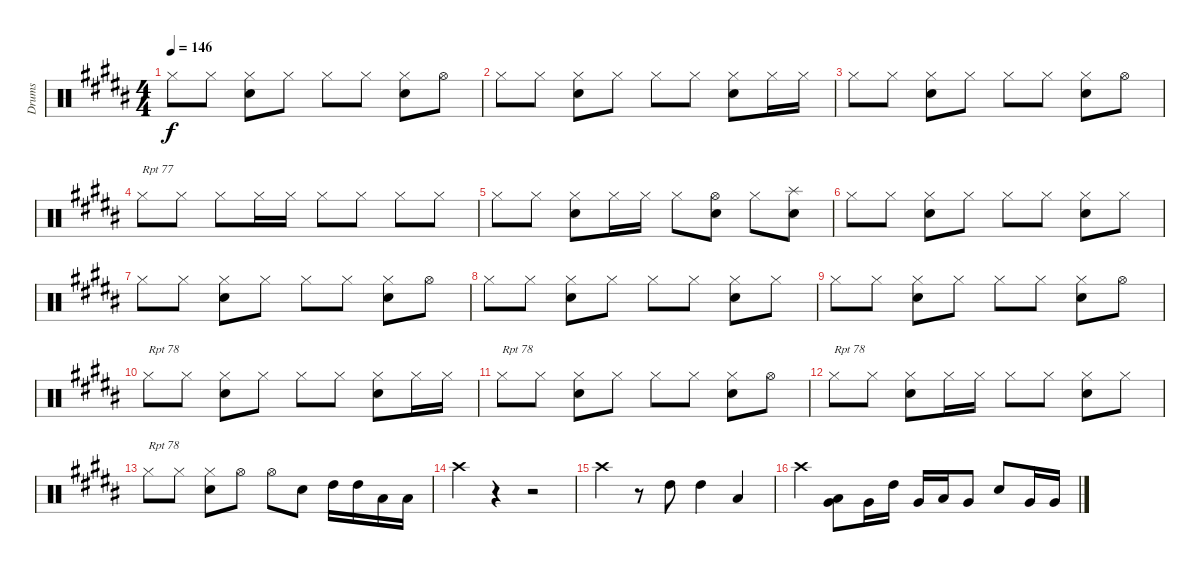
\track ("Drums" "Drums") {instrument percussion}
\staff {score}
\articulation defaults
\ts (4 4)
\tempo 146
\clef neutral
\ks b "Hi-Hat (closed)".8{dy f} "Hi-Hat (closed)".8
("Hi-Hat (closed)" "Snare (hit) 2").8 "Hi-Hat (closed)".8 "Hi-Hat (closed)".8 "Hi-Hat (closed)".8 ("Hi-Hat (closed)" "Snare (hit) 2").8 "Hi-Hat (open)".8 |
"Hi-Hat (closed)".8 "Hi-Hat (closed)".8 ("Hi-Hat (closed)" "Snare (hit) 2").8 "Hi-Hat (closed)".8 "Hi-Hat (closed)".8 "Hi-Hat (closed)".8 ("Hi-Hat (closed)" "Snare (hit) 2").8 "Hi-Hat (closed)".16 "Hi-Hat (closed)".16 |
"Hi-Hat (closed)".8 "Hi-Hat (closed)".8 ("Hi-Hat (closed)" "Snare (hit) 2").8 "Hi-Hat (closed)".8 "Hi-Hat (closed)".8 "Hi-Hat (closed)".8 ("Hi-Hat (closed)" "Snare (hit) 2").8 "Hi-Hat (open)".8 |
"Hi-Hat (closed)".8{txt "Rpt 77"} "Hi-Hat (closed)".8 "Hi-Hat (closed)".8 "Hi-Hat (closed)".16 "Hi-Hat (closed)".16 "Hi-Hat (closed)".8 "Hi-Hat (closed)".8 "Hi-Hat (closed)".8 "Hi-Hat (closed)".8 |
"Hi-Hat (closed)".8 "Hi-Hat (closed)".8 ("Hi-Hat (closed)" "Snare (hit) 2").8 "Hi-Hat (closed)".16 "Hi-Hat (closed)".16 "Hi-Hat (closed)".8 ("Hi-Hat (open)" "Snare (hit) 2").8 "Hi-Hat (closed)".8 ("Splash (hit)" "Snare (hit) 2").8 |
"Hi-Hat (closed)".8 "Hi-Hat (closed)".8 ("Hi-Hat (closed)" "Snare (hit) 2").8 "Hi-Hat (closed)".8 "Hi-Hat (closed)".8 "Hi-Hat (closed)".8 ("Hi-Hat (closed)" "Snare (hit) 2").8 "Hi-Hat (closed)".8 |
"Hi-Hat (closed)".8 "Hi-Hat (closed)".8 ("Hi-Hat (closed)" "Snare (hit) 2").8 "Hi-Hat (closed)".8 "Hi-Hat (closed)".8 "Hi-Hat (closed)".8 ("Hi-Hat (closed)" "Snare (hit) 2").8 "Hi-Hat (open)".8 |
"Hi-Hat (closed)".8 "Hi-Hat (closed)".8 ("Hi-Hat (closed)" "Snare (hit) 2").8 "Hi-Hat (closed)".8 "Hi-Hat (closed)".8 "Hi-Hat (closed)".8 ("Hi-Hat (closed)" "Snare (hit) 2").8 "Hi-Hat (closed)".8 |
"Hi-Hat (closed)".8 "Hi-Hat (closed)".8 ("Hi-Hat (closed)" "Snare (hit) 2").8 "Hi-Hat (closed)".8 "Hi-Hat (closed)".8 "Hi-Hat (closed)".8 ("Hi-Hat (closed)" "Snare (hit) 2").8 "Hi-Hat (open)".8 |
"Hi-Hat (closed)".8{txt "Rpt 78"} "Hi-Hat (closed)".8 ("Hi-Hat (closed)" "Snare (hit) 2").8 "Hi-Hat (closed)".8 "Hi-Hat (closed)".8 "Hi-Hat (closed)".8 ("Hi-Hat (closed)" "Snare (hit) 2").8 "Hi-Hat (closed)".16 "Hi-Hat (closed)".16 |
"Hi-Hat (closed)".8{txt "Rpt 78"} "Hi-Hat (closed)".8 ("Hi-Hat (closed)" "Snare (hit) 2").8 "Hi-Hat (closed)".8 "Hi-Hat (closed)".8 "Hi-Hat (closed)".8 ("Hi-Hat (closed)" "Snare (hit) 2").8 "Hi-Hat (open)".8 |
"Hi-Hat (closed)".8{txt "Rpt 78"} "Hi-Hat (closed)".8 ("Hi-Hat (closed)" "Snare (hit) 2").8 "Hi-Hat (closed)".16 "Hi-Hat (closed)".16 "Hi-Hat (closed)".8 "Hi-Hat (closed)".8 ("Hi-Hat (closed)" "Snare (hit) 2").8 "Hi-Hat (closed)".8 |
"Hi-Hat (closed)".8{txt "Rpt 78"} "Hi-Hat (closed)".8 ("Hi-Hat (closed)" "Snare (hit) 2").8 "Hi-Hat (open)".8 "Hi-Hat (open)".8 "Snare (hit) 2".8 "High Tom (hit)".16 "High Tom (hit)".16 "Low Tom (hit)".16 "Low Tom (hit)".16 |
"Crash high (hit)".4 r.4 r.2 |
"Crash high (hit)".4 r.8 "High Tom (hit)".8 "High Tom (hit)".4 "Low Tom (hit)".4 |
"Crash high (hit)".4 ("Low Tom (hit)" "Very Low Tom (hit)").8 "Very Low Tom (hit)".16 "High Tom (hit)".16 "Very Low Tom (hit)".16 "Low Tom (hit)".16 "Very Low Tom (hit)".8 "Snare (hit) 2".8 "Very Low Tom (hit)".16 "Very Low Tom (hit)".16
